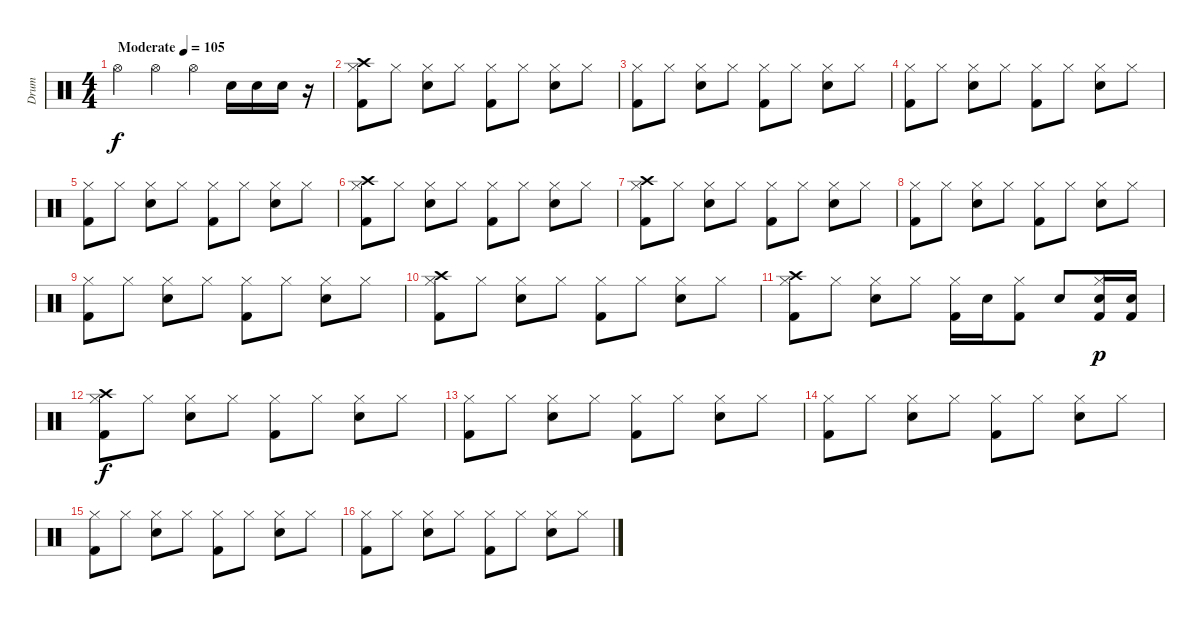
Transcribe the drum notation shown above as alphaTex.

\track ("Drum" "Drum") {instrument percussion}
\staff {score}
\articulation defaults
\ts (4 4)
\tempo (105 "Moderate")
\clef neutral
\ks c "Hi-Hat (open)".4{dy f} "Hi-Hat (open)".4 "Hi-Hat (open)".4 "Electric Snare (hit)".16 "Electric Snare (hit)".16 "Electric Snare (hit)".16
r.16 |
("Crash high (hit)" "Hi-Hat (closed)" "Kick (hit) 2").8 "Hi-Hat (closed)".8 ("Electric Snare (hit)" "Hi-Hat (closed)").8 "Hi-Hat (closed)".8 ("Hi-Hat (closed)" "Kick (hit) 2").8 "Hi-Hat (closed)".8 ("Electric Snare (hit)" "Hi-Hat (closed)").8 "Hi-Hat (closed)".8 |
("Hi-Hat (closed)" "Kick (hit) 2").8 "Hi-Hat (closed)".8 ("Electric Snare (hit)" "Hi-Hat (closed)").8 "Hi-Hat (closed)".8 ("Hi-Hat (closed)" "Kick (hit) 2").8 "Hi-Hat (closed)".8 ("Electric Snare (hit)" "Hi-Hat (closed)").8 "Hi-Hat (closed)".8 |
("Hi-Hat (closed)" "Kick (hit) 2").8 "Hi-Hat (closed)".8 ("Electric Snare (hit)" "Hi-Hat (closed)").8 "Hi-Hat (closed)".8 ("Hi-Hat (closed)" "Kick (hit) 2").8 "Hi-Hat (closed)".8 ("Electric Snare (hit)" "Hi-Hat (closed)").8 "Hi-Hat (closed)".8 |
("Hi-Hat (closed)" "Kick (hit) 2").8 "Hi-Hat (closed)".8 ("Electric Snare (hit)" "Hi-Hat (closed)").8 "Hi-Hat (closed)".8 ("Hi-Hat (closed)" "Kick (hit) 2").8 "Hi-Hat (closed)".8 ("Electric Snare (hit)" "Hi-Hat (closed)").8 "Hi-Hat (closed)".8 |
("Crash high (hit)" "Hi-Hat (closed)" "Kick (hit) 2").8 "Hi-Hat (closed)".8 ("Electric Snare (hit)" "Hi-Hat (closed)").8 "Hi-Hat (closed)".8 ("Hi-Hat (closed)" "Kick (hit) 2").8 "Hi-Hat (closed)".8 ("Electric Snare (hit)" "Hi-Hat (closed)").8 "Hi-Hat (closed)".8 |
("Crash high (hit)" "Hi-Hat (closed)" "Kick (hit) 2").8 "Hi-Hat (closed)".8 ("Electric Snare (hit)" "Hi-Hat (closed)").8 "Hi-Hat (closed)".8 ("Hi-Hat (closed)" "Kick (hit) 2").8 "Hi-Hat (closed)".8 ("Electric Snare (hit)" "Hi-Hat (closed)").8 "Hi-Hat (closed)".8 |
("Hi-Hat (closed)" "Kick (hit) 2").8 "Hi-Hat (closed)".8 ("Electric Snare (hit)" "Hi-Hat (closed)").8 "Hi-Hat (closed)".8 ("Hi-Hat (closed)" "Kick (hit) 2").8 "Hi-Hat (closed)".8 ("Electric Snare (hit)" "Hi-Hat (closed)").8 "Hi-Hat (closed)".8 |
("Hi-Hat (closed)" "Kick (hit) 2").8 "Hi-Hat (closed)".8 ("Electric Snare (hit)" "Hi-Hat (closed)").8 "Hi-Hat (closed)".8 ("Hi-Hat (closed)" "Kick (hit) 2").8 "Hi-Hat (closed)".8 ("Electric Snare (hit)" "Hi-Hat (closed)").8 "Hi-Hat (closed)".8 |
("Crash high (hit)" "Hi-Hat (closed)" "Kick (hit) 2").8 "Hi-Hat (closed)".8 ("Electric Snare (hit)" "Hi-Hat (closed)").8 "Hi-Hat (closed)".8 ("Hi-Hat (closed)" "Kick (hit) 2").8 "Hi-Hat (closed)".8 ("Electric Snare (hit)" "Hi-Hat (closed)").8 "Hi-Hat (closed)".8 |
("Crash high (hit)" "Hi-Hat (closed)" "Kick (hit) 2").8 "Hi-Hat (closed)".8 ("Electric Snare (hit)" "Hi-Hat (closed)").8 "Hi-Hat (closed)".8 ("Hi-Hat (closed)" "Kick (hit) 2").16 "Electric Snare (hit)".16 ("Hi-Hat (closed)" "Kick (hit) 2").8 "Electric Snare (hit)".8 ("Electric Snare (hit)" "Hi-Hat (closed)" "Kick (hit) 2").16{dy p} ("Electric Snare (hit)" "Kick (hit) 2").16 |
("Crash high (hit)" "Hi-Hat (closed)" "Kick (hit) 2").8{dy f} "Hi-Hat (closed)".8 ("Electric Snare (hit)" "Hi-Hat (closed)").8 "Hi-Hat (closed)".8 ("Hi-Hat (closed)" "Kick (hit) 2").8 "Hi-Hat (closed)".8 ("Electric Snare (hit)" "Hi-Hat (closed)").8 "Hi-Hat (closed)".8 |
("Hi-Hat (closed)" "Kick (hit) 2").8 "Hi-Hat (closed)".8 ("Electric Snare (hit)" "Hi-Hat (closed)").8 "Hi-Hat (closed)".8 ("Hi-Hat (closed)" "Kick (hit) 2").8 "Hi-Hat (closed)".8 ("Electric Snare (hit)" "Hi-Hat (closed)").8 "Hi-Hat (closed)".8 |
("Hi-Hat (closed)" "Kick (hit) 2").8 "Hi-Hat (closed)".8 ("Electric Snare (hit)" "Hi-Hat (closed)").8 "Hi-Hat (closed)".8 ("Hi-Hat (closed)" "Kick (hit) 2").8 "Hi-Hat (closed)".8 ("Electric Snare (hit)" "Hi-Hat (closed)").8 "Hi-Hat (closed)".8 |
("Hi-Hat (closed)" "Kick (hit) 2").8 "Hi-Hat (closed)".8 ("Electric Snare (hit)" "Hi-Hat (closed)").8 "Hi-Hat (closed)".8 ("Hi-Hat (closed)" "Kick (hit) 2").8 "Hi-Hat (closed)".8 ("Electric Snare (hit)" "Hi-Hat (closed)").8 "Hi-Hat (closed)".8 |
("Hi-Hat (closed)" "Kick (hit) 2").8 "Hi-Hat (closed)".8 ("Electric Snare (hit)" "Hi-Hat (closed)").8 "Hi-Hat (closed)".8 ("Hi-Hat (closed)" "Kick (hit) 2").8 "Hi-Hat (closed)".8 ("Electric Snare (hit)" "Hi-Hat (closed)").8 "Hi-Hat (closed)".8
